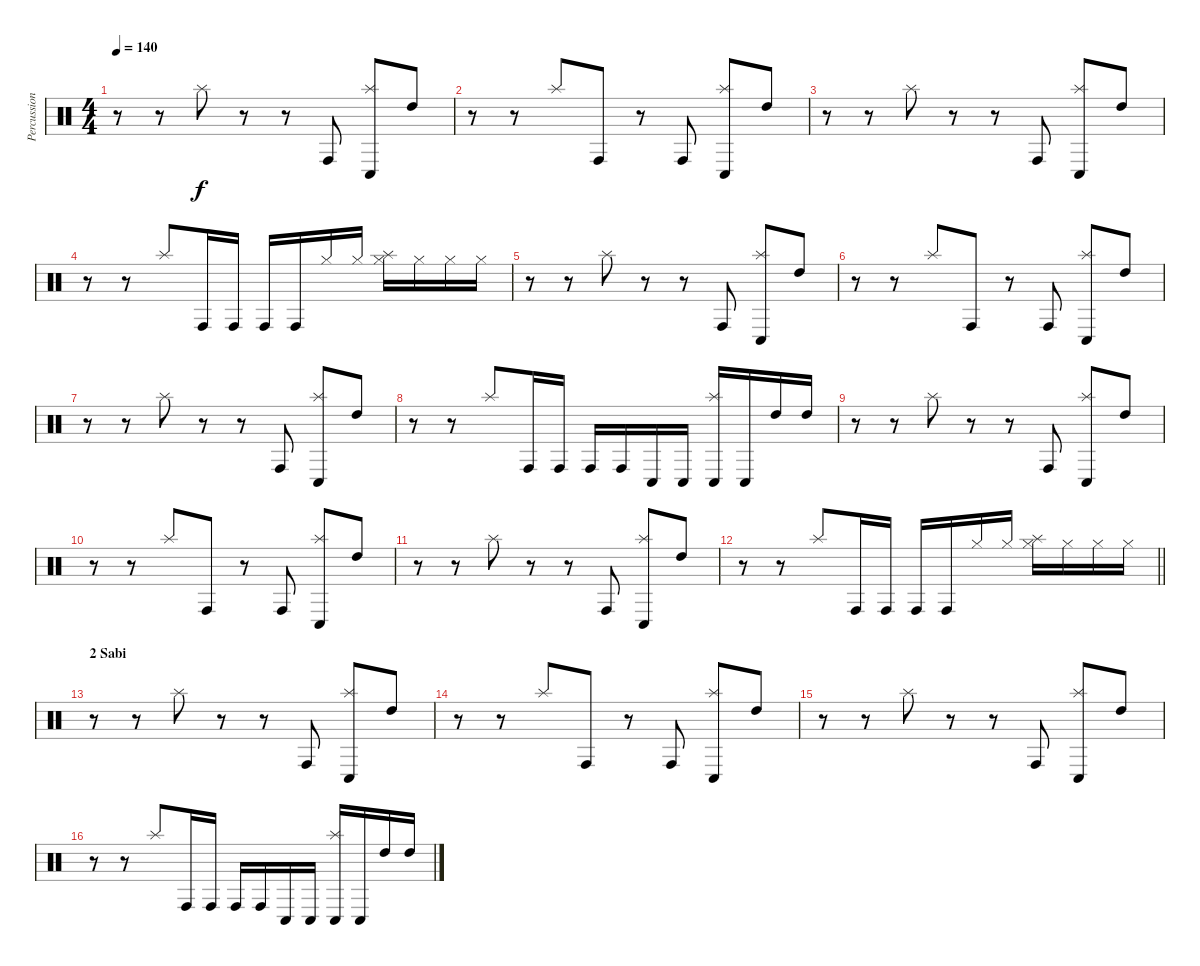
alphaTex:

\track ("Percussion" "Percussion") {instrument percussion}
\staff {score}
\articulation defaults
\ts (4 4)
\tempo 140
\clef neutral
\ks c
r.8{dy f} r.8 "Splash (hit)".8 r.8 r.8 "Conga high (hit)".8 ("Conga low (hit)" "Splash (hit)").8 "High Tom (hit)".8 |
r.8 r.8 "Splash (hit)".8 "Conga high (hit)".8 r.8 "Conga high (hit)".8 ("Conga low (hit)" "Splash (hit)").8 "High Tom (hit)".8 |
r.8 r.8 "Splash (hit)".8 r.8 r.8 "Conga high (hit)".8 ("Conga low (hit)" "Splash (hit)").8 "High Tom (hit)".8 |
r.8 r.8 "Splash (hit)".8 "Conga high (hit)".16 "Conga high (hit)".16 "Conga high (hit)".16 "Conga high (hit)".16 "Hi-Hat (closed)".16 "Hi-Hat (closed)".16 ("Hi-Hat (closed)" "Splash (hit)").16 "Hi-Hat (closed)".16 "Hi-Hat (closed)".16 "Hi-Hat (closed)".16 |
r.8 r.8 "Splash (hit)".8 r.8 r.8 "Conga high (hit)".8 ("Conga low (hit)" "Splash (hit)").8 "High Tom (hit)".8 |
r.8 r.8 "Splash (hit)".8 "Conga high (hit)".8 r.8 "Conga high (hit)".8 ("Conga low (hit)" "Splash (hit)").8 "High Tom (hit)".8 |
r.8 r.8 "Splash (hit)".8 r.8 r.8 "Conga high (hit)".8 ("Conga low (hit)" "Splash (hit)").8 "High Tom (hit)".8 |
r.8 r.8 "Splash (hit)".8 "Conga high (hit)".16 "Conga high (hit)".16 "Conga high (hit)".16 "Conga high (hit)".16 "Conga low (hit)".16 "Conga low (hit)".16 ("Conga low (hit)" "Splash (hit)").16 "Conga low (hit)".16 "High Tom (hit)".16 "High Tom (hit)".16 |
r.8 r.8 "Splash (hit)".8 r.8 r.8 "Conga high (hit)".8 ("Conga low (hit)" "Splash (hit)").8 "High Tom (hit)".8 |
r.8 r.8 "Splash (hit)".8 "Conga high (hit)".8 r.8 "Conga high (hit)".8 ("Conga low (hit)" "Splash (hit)").8 "High Tom (hit)".8 |
r.8 r.8 "Splash (hit)".8 r.8 r.8 "Conga high (hit)".8 ("Conga low (hit)" "Splash (hit)").8 "High Tom (hit)".8 |
\barLineRight lightlight
r.8 r.8 "Splash (hit)".8 "Conga high (hit)".16 "Conga high (hit)".16 "Conga high (hit)".16 "Conga high (hit)".16 "Hi-Hat (closed)".16 "Hi-Hat (closed)".16 ("Hi-Hat (closed)" "Splash (hit)").16 "Hi-Hat (closed)".16 "Hi-Hat (closed)".16 "Hi-Hat (closed)".16 |
\section ("" "2 Sabi")
r.8 r.8 "Splash (hit)".8 r.8 r.8 "Conga high (hit)".8 ("Conga low (hit)" "Splash (hit)").8 "High Tom (hit)".8 |
r.8 r.8 "Splash (hit)".8 "Conga high (hit)".8 r.8 "Conga high (hit)".8 ("Conga low (hit)" "Splash (hit)").8 "High Tom (hit)".8 |
r.8 r.8 "Splash (hit)".8 r.8 r.8 "Conga high (hit)".8 ("Conga low (hit)" "Splash (hit)").8 "High Tom (hit)".8 |
r.8 r.8 "Splash (hit)".8 "Conga high (hit)".16 "Conga high (hit)".16 "Conga high (hit)".16 "Conga high (hit)".16 "Conga low (hit)".16 "Conga low (hit)".16 ("Conga low (hit)" "Splash (hit)").16 "Conga low (hit)".16 "High Tom (hit)".16 "High Tom (hit)".16
